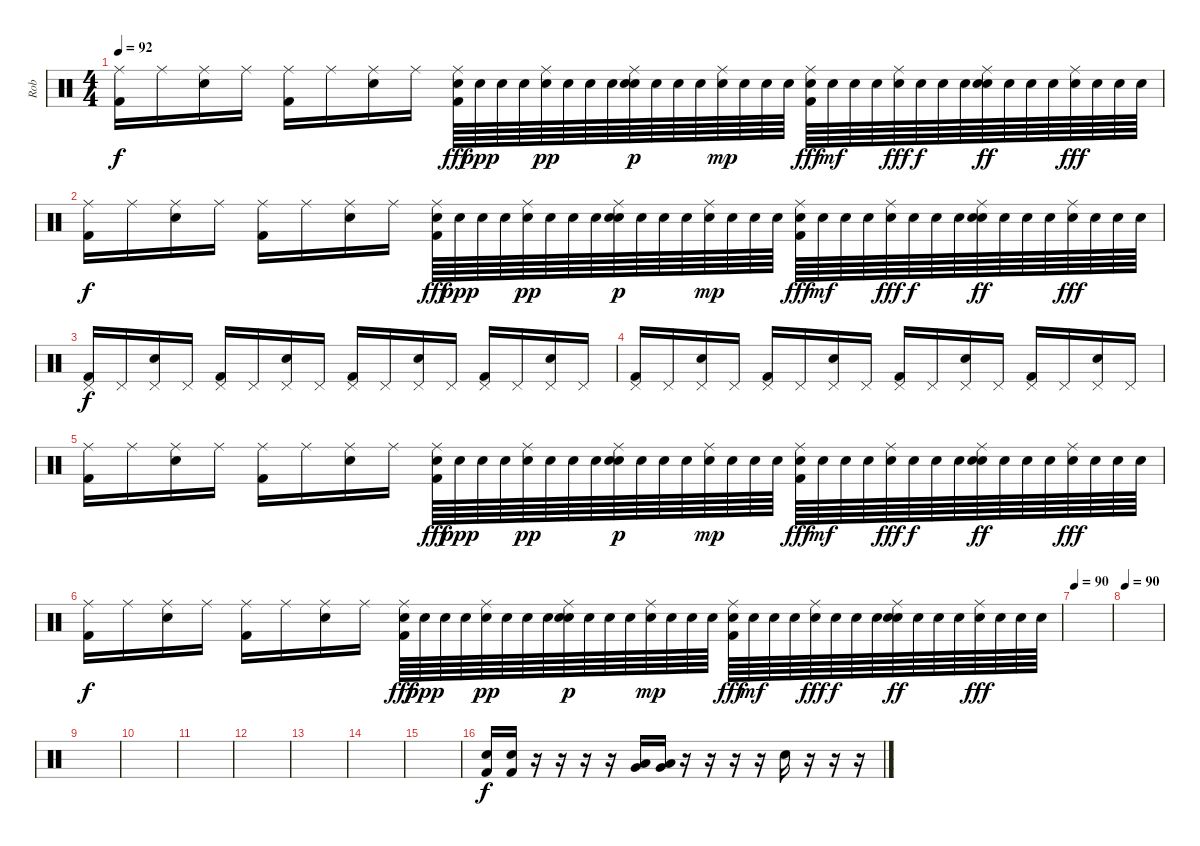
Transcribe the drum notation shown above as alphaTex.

\track ("Rob" "Rob") {instrument percussion}
\staff {score}
\articulation defaults
\ts (4 4)
\tempo 92
\clef neutral
\ks c
("Ride (middle)" "Kick (hit) 2").16{dy f} "Ride (middle)".16 ("Ride (middle)" "Electric Snare (hit)").16 "Ride (middle)".16 ("Ride (middle)" "Kick (hit) 2").16 "Ride (middle)".16 ("Ride (middle)" "Electric Snare (hit)").16 "Ride (middle)".16 ("Ride (middle)" "Electric Snare (hit)" "Kick (hit) 2").64{dy fff} "Electric Snare (hit)".64{dy ppp} "Electric Snare (hit)".64 "Electric Snare (hit)".64 ("Ride (middle)" "Electric Snare (hit)").64{dy pp} "Electric Snare (hit)".64 "Electric Snare (hit)".64 "Electric Snare (hit)".64 ("Ride (middle)" "Electric Snare (hit)" "Electric Snare (hit)").64{dy p} "Electric Snare (hit)".64 "Electric Snare (hit)".64 "Electric Snare (hit)".64 ("Ride (middle)" "Electric Snare (hit)").64{dy mp} "Electric Snare (hit)".64 "Electric Snare (hit)".64 "Electric Snare (hit)".64 ("Ride (middle)" "Electric Snare (hit)" "Kick (hit) 2").64{dy fff} "Electric Snare (hit)".64{dy mf} "Electric Snare (hit)".64 "Electric Snare (hit)".64 ("Ride (middle)" "Electric Snare (hit)").64{dy fff} "Electric Snare (hit)".64{dy f} "Electric Snare (hit)".64 "Electric Snare (hit)".64 ("Ride (middle)" "Electric Snare (hit)" "Electric Snare (hit)").64{dy ff} "Electric Snare (hit)".64 "Electric Snare (hit)".64 "Electric Snare (hit)".64 ("Ride (middle)" "Electric Snare (hit)").64{dy fff} "Electric Snare (hit)".64 "Electric Snare (hit)".64 "Electric Snare (hit)".64 |
("Ride (middle)" "Kick (hit) 2").16{dy f} "Ride (middle)".16 ("Ride (middle)" "Electric Snare (hit)").16 "Ride (middle)".16 ("Ride (middle)" "Kick (hit) 2").16 "Ride (middle)".16 ("Ride (middle)" "Electric Snare (hit)").16 "Ride (middle)".16 ("Ride (middle)" "Electric Snare (hit)" "Kick (hit) 2").64{dy fff} "Electric Snare (hit)".64{dy ppp} "Electric Snare (hit)".64 "Electric Snare (hit)".64 ("Ride (middle)" "Electric Snare (hit)").64{dy pp} "Electric Snare (hit)".64 "Electric Snare (hit)".64 "Electric Snare (hit)".64 ("Ride (middle)" "Electric Snare (hit)" "Electric Snare (hit)").64{dy p} "Electric Snare (hit)".64 "Electric Snare (hit)".64 "Electric Snare (hit)".64 ("Ride (middle)" "Electric Snare (hit)").64{dy mp} "Electric Snare (hit)".64 "Electric Snare (hit)".64 "Electric Snare (hit)".64 ("Ride (middle)" "Electric Snare (hit)" "Kick (hit) 2").64{dy fff} "Electric Snare (hit)".64{dy mf} "Electric Snare (hit)".64 "Electric Snare (hit)".64 ("Ride (middle)" "Electric Snare (hit)").64{dy fff} "Electric Snare (hit)".64{dy f} "Electric Snare (hit)".64 "Electric Snare (hit)".64 ("Ride (middle)" "Electric Snare (hit)" "Electric Snare (hit)").64{dy ff} "Electric Snare (hit)".64 "Electric Snare (hit)".64 "Electric Snare (hit)".64 ("Ride (middle)" "Electric Snare (hit)").64{dy fff} "Electric Snare (hit)".64 "Electric Snare (hit)".64 "Electric Snare (hit)".64 |
("Pedal Hi-Hat (hit)" "Kick (hit) 2").16{dy f} "Pedal Hi-Hat (hit)".16 ("Pedal Hi-Hat (hit)" "Electric Snare (hit)").16 "Pedal Hi-Hat (hit)".16 ("Pedal Hi-Hat (hit)" "Kick (hit) 2").16 "Pedal Hi-Hat (hit)".16 ("Pedal Hi-Hat (hit)" "Electric Snare (hit)").16 "Pedal Hi-Hat (hit)".16 ("Pedal Hi-Hat (hit)" "Kick (hit) 2").16 "Pedal Hi-Hat (hit)".16 ("Pedal Hi-Hat (hit)" "Electric Snare (hit)").16 "Pedal Hi-Hat (hit)".16 ("Pedal Hi-Hat (hit)" "Kick (hit) 2").16 "Pedal Hi-Hat (hit)".16 ("Pedal Hi-Hat (hit)" "Electric Snare (hit)").16 "Pedal Hi-Hat (hit)".16 |
("Pedal Hi-Hat (hit)" "Kick (hit) 2").16 "Pedal Hi-Hat (hit)".16 ("Pedal Hi-Hat (hit)" "Electric Snare (hit)").16 "Pedal Hi-Hat (hit)".16 ("Pedal Hi-Hat (hit)" "Kick (hit) 2").16 "Pedal Hi-Hat (hit)".16 ("Pedal Hi-Hat (hit)" "Electric Snare (hit)").16 "Pedal Hi-Hat (hit)".16 ("Pedal Hi-Hat (hit)" "Kick (hit) 2").16 "Pedal Hi-Hat (hit)".16 ("Pedal Hi-Hat (hit)" "Electric Snare (hit)").16 "Pedal Hi-Hat (hit)".16 ("Pedal Hi-Hat (hit)" "Kick (hit) 2").16 "Pedal Hi-Hat (hit)".16 ("Pedal Hi-Hat (hit)" "Electric Snare (hit)").16 "Pedal Hi-Hat (hit)".16 |
("Ride (middle)" "Kick (hit) 2").16 "Ride (middle)".16 ("Ride (middle)" "Electric Snare (hit)").16 "Ride (middle)".16 ("Ride (middle)" "Kick (hit) 2").16 "Ride (middle)".16 ("Ride (middle)" "Electric Snare (hit)").16 "Ride (middle)".16 ("Ride (middle)" "Electric Snare (hit)" "Kick (hit) 2").64{dy fff} "Electric Snare (hit)".64{dy ppp} "Electric Snare (hit)".64 "Electric Snare (hit)".64 ("Ride (middle)" "Electric Snare (hit)").64{dy pp} "Electric Snare (hit)".64 "Electric Snare (hit)".64 "Electric Snare (hit)".64 ("Ride (middle)" "Electric Snare (hit)" "Electric Snare (hit)").64{dy p} "Electric Snare (hit)".64 "Electric Snare (hit)".64 "Electric Snare (hit)".64 ("Ride (middle)" "Electric Snare (hit)").64{dy mp} "Electric Snare (hit)".64 "Electric Snare (hit)".64 "Electric Snare (hit)".64 ("Ride (middle)" "Electric Snare (hit)" "Kick (hit) 2").64{dy fff} "Electric Snare (hit)".64{dy mf} "Electric Snare (hit)".64 "Electric Snare (hit)".64 ("Ride (middle)" "Electric Snare (hit)").64{dy fff} "Electric Snare (hit)".64{dy f} "Electric Snare (hit)".64 "Electric Snare (hit)".64 ("Ride (middle)" "Electric Snare (hit)" "Electric Snare (hit)").64{dy ff} "Electric Snare (hit)".64 "Electric Snare (hit)".64 "Electric Snare (hit)".64 ("Ride (middle)" "Electric Snare (hit)").64{dy fff} "Electric Snare (hit)".64 "Electric Snare (hit)".64 "Electric Snare (hit)".64 |
("Ride (middle)" "Kick (hit) 2").16{dy f} "Ride (middle)".16 ("Ride (middle)" "Electric Snare (hit)").16 "Ride (middle)".16 ("Ride (middle)" "Kick (hit) 2").16 "Ride (middle)".16 ("Ride (middle)" "Electric Snare (hit)").16 "Ride (middle)".16 ("Ride (middle)" "Electric Snare (hit)" "Kick (hit) 2").64{dy fff} "Electric Snare (hit)".64{dy ppp} "Electric Snare (hit)".64 "Electric Snare (hit)".64 ("Ride (middle)" "Electric Snare (hit)").64{dy pp} "Electric Snare (hit)".64 "Electric Snare (hit)".64 "Electric Snare (hit)".64 ("Ride (middle)" "Electric Snare (hit)" "Electric Snare (hit)").64{dy p} "Electric Snare (hit)".64 "Electric Snare (hit)".64 "Electric Snare (hit)".64 ("Ride (middle)" "Electric Snare (hit)").64{dy mp} "Electric Snare (hit)".64 "Electric Snare (hit)".64 "Electric Snare (hit)".64 ("Ride (middle)" "Electric Snare (hit)" "Kick (hit) 2").64{dy fff} "Electric Snare (hit)".64{dy mf} "Electric Snare (hit)".64 "Electric Snare (hit)".64 ("Ride (middle)" "Electric Snare (hit)").64{dy fff} "Electric Snare (hit)".64{dy f} "Electric Snare (hit)".64 "Electric Snare (hit)".64 ("Ride (middle)" "Electric Snare (hit)" "Electric Snare (hit)").64{dy ff} "Electric Snare (hit)".64 "Electric Snare (hit)".64 "Electric Snare (hit)".64 ("Ride (middle)" "Electric Snare (hit)").64{dy fff} "Electric Snare (hit)".64 "Electric Snare (hit)".64 "Electric Snare (hit)".64 |
\tempo 90
|
\tempo 90
|
|
|
|
|
|
|
|
("Electric Snare (hit)" "Kick (hit) 2").16{dy f} ("Electric Snare (hit)" "Kick (hit) 2").16 r.16 r.16 r.16 r.16 ("Very Low Tom (hit)" "Low Tom (hit)").16 ("Very Low Tom (hit)" "Low Tom (hit)").16 r.16 r.16 r.16 r.16 "Electric Snare (hit)".16 r.16 r.16 r.16
